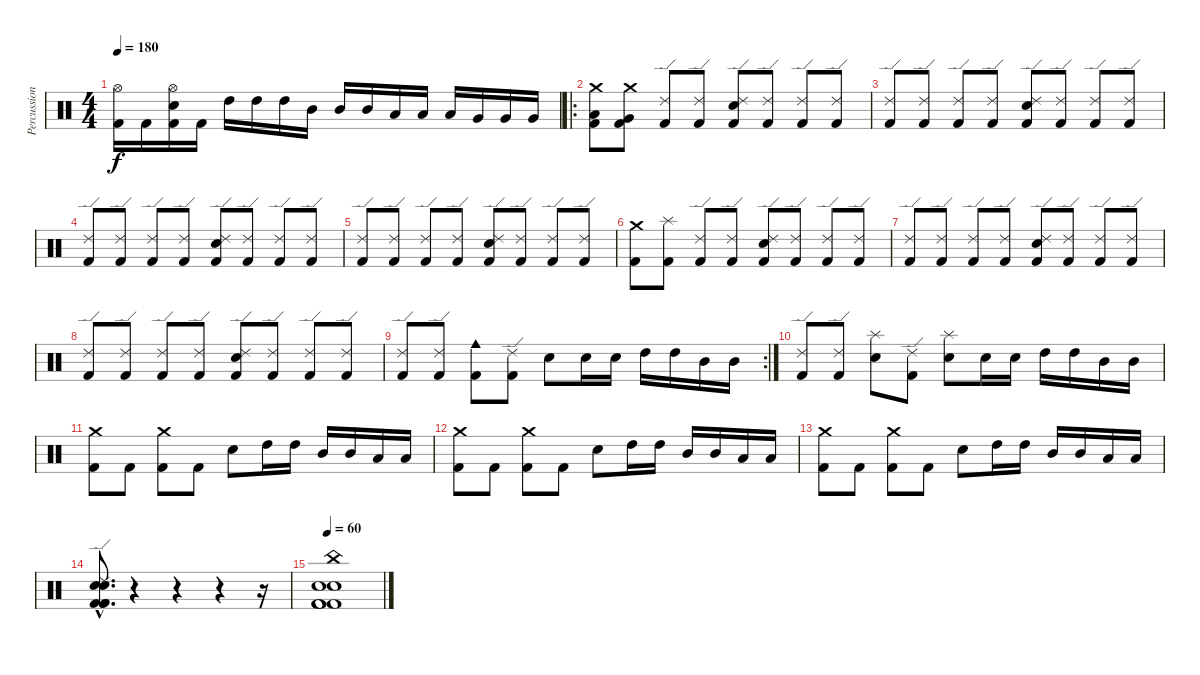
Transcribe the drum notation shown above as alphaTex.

\track ("Percussion" "Percussion") {instrument percussion}
\staff {score}
\articulation defaults
\ts (4 4)
\tempo 180
\clef neutral
\ks c
("Kick (hit) 2" "Hi-Hat (open)").16{dy f} "Kick (hit) 2".16 ("Kick (hit) 2" "Electric Snare (hit)" "Hi-Hat (open)").16 "Kick (hit) 2".16 "High Tom (hit)".16 "High Tom (hit)".16 "High Tom (hit)".16 "Mid Tom (hit)".16 "Mid Tom (hit)".16 "Mid Tom (hit)".16 "Low Tom (hit)".16 "Low Tom (hit)".16 "Low Tom (hit)".16 "Very Low Tom (hit)".16 "Very Low Tom (hit)".16 "Very Low Tom (hit)".16 |
\ro
("Kick (hit) 2" "Low Tom (hit)" "Crash medium (hit)").8 ("Kick (hit) 2" "Very Low Tom (hit)" "Crash medium (hit)").8 ("Kick (hit) 2" "Ride (edge) 2").8 ("Kick (hit) 2" "Ride (edge) 2").8 ("Kick (hit) 2" "Electric Snare (hit)" "Ride (edge) 2").8 ("Kick (hit) 2" "Ride (edge) 2").8 ("Kick (hit) 2" "Ride (edge) 2").8 ("Kick (hit) 2" "Ride (edge) 2").8 |
("Kick (hit) 2" "Ride (edge) 2").8 ("Kick (hit) 2" "Ride (edge) 2").8 ("Kick (hit) 2" "Ride (edge) 2").8 ("Kick (hit) 2" "Ride (edge) 2").8 ("Kick (hit) 2" "Electric Snare (hit)" "Ride (edge) 2").8 ("Kick (hit) 2" "Ride (edge) 2").8 ("Kick (hit) 2" "Ride (edge) 2").8 ("Kick (hit) 2" "Ride (edge) 2").8 |
("Kick (hit) 2" "Ride (edge) 2").8 ("Kick (hit) 2" "Ride (edge) 2").8 ("Kick (hit) 2" "Ride (edge) 2").8 ("Kick (hit) 2" "Ride (edge) 2").8 ("Kick (hit) 2" "Electric Snare (hit)" "Ride (edge) 2").8 ("Kick (hit) 2" "Ride (edge) 2").8 ("Kick (hit) 2" "Ride (edge) 2").8 ("Kick (hit) 2" "Ride (edge) 2").8 |
("Kick (hit) 2" "Ride (edge) 2").8 ("Kick (hit) 2" "Ride (edge) 2").8 ("Kick (hit) 2" "Ride (edge) 2").8 ("Kick (hit) 2" "Ride (edge) 2").8 ("Kick (hit) 2" "Electric Snare (hit)" "Ride (edge) 2").8 ("Kick (hit) 2" "Ride (edge) 2").8 ("Kick (hit) 2" "Ride (edge) 2").8 ("Kick (hit) 2" "Ride (edge) 2").8 |
("Kick (hit) 2" "Crash medium (hit)").8 ("Kick (hit) 2" "Splash (hit)").8 ("Kick (hit) 2" "Ride (edge) 2").8 ("Kick (hit) 2" "Ride (edge) 2").8 ("Kick (hit) 2" "Electric Snare (hit)" "Ride (edge) 2").8 ("Kick (hit) 2" "Ride (edge) 2").8 ("Kick (hit) 2" "Ride (edge) 2").8 ("Kick (hit) 2" "Ride (edge) 2").8 |
("Kick (hit) 2" "Ride (edge) 2").8 ("Kick (hit) 2" "Ride (edge) 2").8 ("Kick (hit) 2" "Ride (edge) 2").8 ("Kick (hit) 2" "Ride (edge) 2").8 ("Kick (hit) 2" "Electric Snare (hit)" "Ride (edge) 2").8 ("Kick (hit) 2" "Ride (edge) 2").8 ("Kick (hit) 2" "Ride (edge) 2").8 ("Kick (hit) 2" "Ride (edge) 2").8 |
("Kick (hit) 2" "Ride (edge) 2").8 ("Kick (hit) 2" "Ride (edge) 2").8 ("Kick (hit) 2" "Ride (edge) 2").8 ("Kick (hit) 2" "Ride (edge) 2").8 ("Kick (hit) 2" "Electric Snare (hit)" "Ride (edge) 2").8 ("Kick (hit) 2" "Ride (edge) 2").8 ("Kick (hit) 2" "Ride (edge) 2").8 ("Kick (hit) 2" "Ride (edge) 2").8 |
\rc 2
("Kick (hit) 2" "Ride (edge) 2").8 ("Kick (hit) 2" "Ride (edge) 2").8 ("Kick (hit) 2" "Cowbell medium (hit)").8 ("Kick (hit) 2" "Ride (edge) 2").8 "Electric Snare (hit)".8 "Electric Snare (hit)".16 "Electric Snare (hit)".16 "High Tom (hit)".16 "High Tom (hit)".16 "Mid Tom (hit)".16 "Mid Tom (hit)".16 |
("Kick (hit) 2" "Ride (edge) 2").8 ("Kick (hit) 2" "Ride (edge) 2").8 ("Electric Snare (hit)" "Splash (hit)").8 ("Kick (hit) 2" "Ride (edge) 2").8 ("Electric Snare (hit)" "Splash (hit)").8 "Electric Snare (hit)".16 "Electric Snare (hit)".16 "High Tom (hit)".16 "High Tom (hit)".16 "Mid Tom (hit)".16 "Mid Tom (hit)".16 |
("Kick (hit) 2" "Crash medium (hit)").8 "Kick (hit) 2".8 ("Kick (hit) 2" "Crash medium (hit)").8 "Kick (hit) 2".8 "Electric Snare (hit)".8 "High Tom (hit)".16 "High Tom (hit)".16 "Mid Tom (hit)".16 "Mid Tom (hit)".16 "Low Tom (hit)".16 "Low Tom (hit)".16 |
("Kick (hit) 2" "Crash medium (hit)").8 "Kick (hit) 2".8 ("Kick (hit) 2" "Crash medium (hit)").8 "Kick (hit) 2".8 "Electric Snare (hit)".8 "High Tom (hit)".16 "High Tom (hit)".16 "Mid Tom (hit)".16 "Mid Tom (hit)".16 "Low Tom (hit)".16 "Low Tom (hit)".16 |
("Kick (hit) 2" "Crash medium (hit)").8 "Kick (hit) 2".8 ("Kick (hit) 2" "Crash medium (hit)").8 "Kick (hit) 2".8 "Electric Snare (hit)".8 "High Tom (hit)".16 "High Tom (hit)".16 "Mid Tom (hit)".16 "Mid Tom (hit)".16 "Low Tom (hit)".16 "Low Tom (hit)".16 |
("Kick (hit) 2"{hac} "Kick (hit) 2"{hac} "Kick (hit) 2"{hac} "Ride (edge) 2"{hac} "Electric Snare (hit)"{hac} "Electric Snare (hit)"{hac}).8{d} r.4 r.4 r.4 r.16 |
\tempo 60
("Kick (hit) 2" "Kick (hit) 2" "Kick (hit) 2" "China (hit)" "Electric Snare (hit)" "Electric Snare (hit)").1
